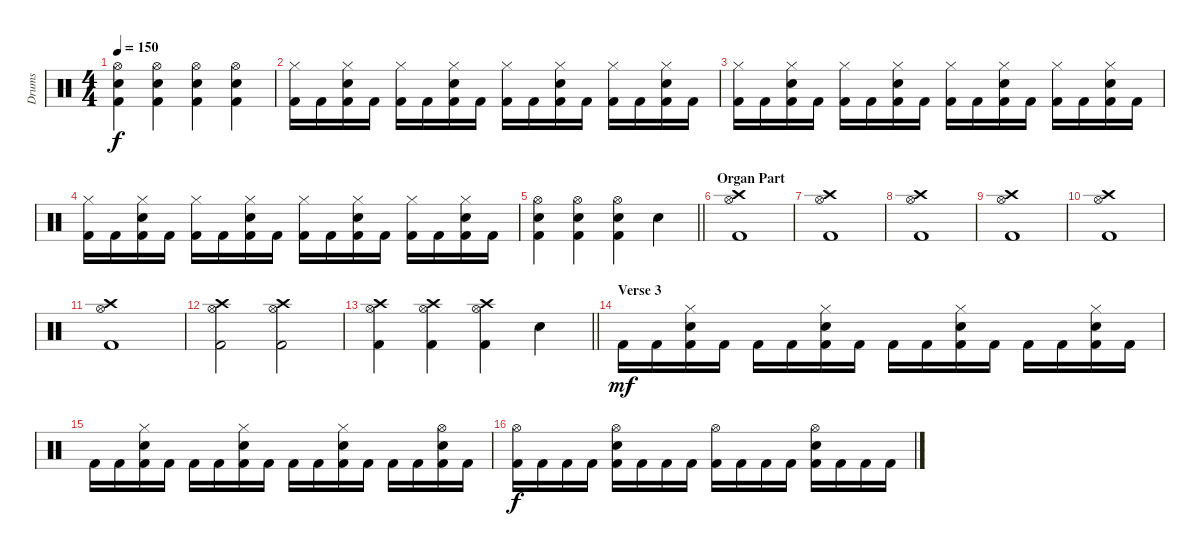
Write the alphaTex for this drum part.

\track ("Drums" "Drums") {instrument percussion}
\staff {score}
\articulation defaults
\ts (4 4)
\tempo 150
\clef neutral
\ks c
("Hi-Hat (open)" "Electric Snare (hit)" "Kick (hit) 2").4{dy f} ("Hi-Hat (open)" "Electric Snare (hit)" "Kick (hit) 2").4 ("Hi-Hat (open)" "Electric Snare (hit)" "Kick (hit) 2").4 ("Hi-Hat (open)" "Electric Snare (hit)" "Kick (hit) 2").4 |
("Hi-Hat (closed)" "Kick (hit) 2").16 "Kick (hit) 2".16 ("Hi-Hat (closed)" "Electric Snare (hit)" "Kick (hit) 2").16 "Kick (hit) 2".16 ("Hi-Hat (closed)" "Kick (hit) 2").16 "Kick (hit) 2".16 ("Hi-Hat (closed)" "Electric Snare (hit)" "Kick (hit) 2").16 "Kick (hit) 2".16 ("Hi-Hat (closed)" "Kick (hit) 2").16 "Kick (hit) 2".16 ("Hi-Hat (closed)" "Electric Snare (hit)" "Kick (hit) 2").16 "Kick (hit) 2".16 ("Hi-Hat (closed)" "Kick (hit) 2").16 "Kick (hit) 2".16 ("Hi-Hat (closed)" "Electric Snare (hit)" "Kick (hit) 2").16 "Kick (hit) 2".16 |
("Hi-Hat (closed)" "Kick (hit) 2").16 "Kick (hit) 2".16 ("Hi-Hat (closed)" "Electric Snare (hit)" "Kick (hit) 2").16 "Kick (hit) 2".16 ("Hi-Hat (closed)" "Kick (hit) 2").16 "Kick (hit) 2".16 ("Hi-Hat (closed)" "Electric Snare (hit)" "Kick (hit) 2").16 "Kick (hit) 2".16 ("Hi-Hat (closed)" "Kick (hit) 2").16 "Kick (hit) 2".16 ("Hi-Hat (closed)" "Electric Snare (hit)" "Kick (hit) 2").16 "Kick (hit) 2".16 ("Hi-Hat (closed)" "Kick (hit) 2").16 "Kick (hit) 2".16 ("Hi-Hat (closed)" "Electric Snare (hit)" "Kick (hit) 2").16 "Kick (hit) 2".16 |
("Hi-Hat (closed)" "Kick (hit) 2").16 "Kick (hit) 2".16 ("Hi-Hat (closed)" "Electric Snare (hit)" "Kick (hit) 2").16 "Kick (hit) 2".16 ("Hi-Hat (closed)" "Kick (hit) 2").16 "Kick (hit) 2".16 ("Hi-Hat (closed)" "Electric Snare (hit)" "Kick (hit) 2").16 "Kick (hit) 2".16 ("Hi-Hat (closed)" "Kick (hit) 2").16 "Kick (hit) 2".16 ("Hi-Hat (closed)" "Electric Snare (hit)" "Kick (hit) 2").16 "Kick (hit) 2".16 ("Hi-Hat (closed)" "Kick (hit) 2").16 "Kick (hit) 2".16 ("Hi-Hat (closed)" "Electric Snare (hit)" "Kick (hit) 2").16 "Kick (hit) 2".16 |
\barLineRight lightlight
("Hi-Hat (open)" "Electric Snare (hit)" "Kick (hit) 2").4 ("Hi-Hat (open)" "Electric Snare (hit)" "Kick (hit) 2").4 ("Hi-Hat (open)" "Electric Snare (hit)" "Kick (hit) 2").4 "Electric Snare (hit)".4 |
\section ("" "Organ Part")
("Crash high (hit)" "Hi-Hat (open)" "Kick (hit) 2").1 |
("Crash high (hit)" "Hi-Hat (open)" "Kick (hit) 2").1 |
("Crash high (hit)" "Hi-Hat (open)" "Kick (hit) 2").1 |
("Crash high (hit)" "Hi-Hat (open)" "Kick (hit) 2").1 |
("Crash high (hit)" "Hi-Hat (open)" "Kick (hit) 2").1 |
("Crash high (hit)" "Hi-Hat (open)" "Kick (hit) 2").1 |
("Crash high (hit)" "Hi-Hat (open)" "Kick (hit) 2").2 ("Crash high (hit)" "Hi-Hat (open)" "Kick (hit) 2").2 |
\barLineRight lightlight
("Crash high (hit)" "Hi-Hat (open)" "Kick (hit) 2").4 ("Crash high (hit)" "Hi-Hat (open)" "Kick (hit) 2").4 ("Crash high (hit)" "Hi-Hat (open)" "Kick (hit) 2").4 "Electric Snare (hit)".4 |
\section ("" "Verse 3")
"Kick (hit) 2".16{dy mf} "Kick (hit) 2".16 ("Hi-Hat (closed)" "Electric Snare (hit)" "Kick (hit) 2").16 "Kick (hit) 2".16 "Kick (hit) 2".16 "Kick (hit) 2".16 ("Hi-Hat (closed)" "Electric Snare (hit)" "Kick (hit) 2").16 "Kick (hit) 2".16 "Kick (hit) 2".16 "Kick (hit) 2".16 ("Hi-Hat (closed)" "Electric Snare (hit)" "Kick (hit) 2").16 "Kick (hit) 2".16 "Kick (hit) 2".16 "Kick (hit) 2".16 ("Hi-Hat (closed)" "Electric Snare (hit)" "Kick (hit) 2").16 "Kick (hit) 2".16 |
"Kick (hit) 2".16 "Kick (hit) 2".16 ("Hi-Hat (closed)" "Electric Snare (hit)" "Kick (hit) 2").16 "Kick (hit) 2".16 "Kick (hit) 2".16 "Kick (hit) 2".16 ("Hi-Hat (closed)" "Electric Snare (hit)" "Kick (hit) 2").16 "Kick (hit) 2".16 "Kick (hit) 2".16 "Kick (hit) 2".16 ("Hi-Hat (closed)" "Electric Snare (hit)" "Kick (hit) 2").16 "Kick (hit) 2".16 "Kick (hit) 2".16 "Kick (hit) 2".16 ("Hi-Hat (open)" "Electric Snare (hit)" "Kick (hit) 2").16 "Kick (hit) 2".16 |
("Hi-Hat (open)" "Kick (hit) 2").16{dy f} "Kick (hit) 2".16 "Kick (hit) 2".16 "Kick (hit) 2".16 ("Hi-Hat (open)" "Electric Snare (hit)" "Kick (hit) 2").16 "Kick (hit) 2".16 "Kick (hit) 2".16 "Kick (hit) 2".16 ("Hi-Hat (open)" "Kick (hit) 2").16 "Kick (hit) 2".16 "Kick (hit) 2".16 "Kick (hit) 2".16 ("Hi-Hat (open)" "Electric Snare (hit)" "Kick (hit) 2").16 "Kick (hit) 2".16 "Kick (hit) 2".16 "Kick (hit) 2".16
